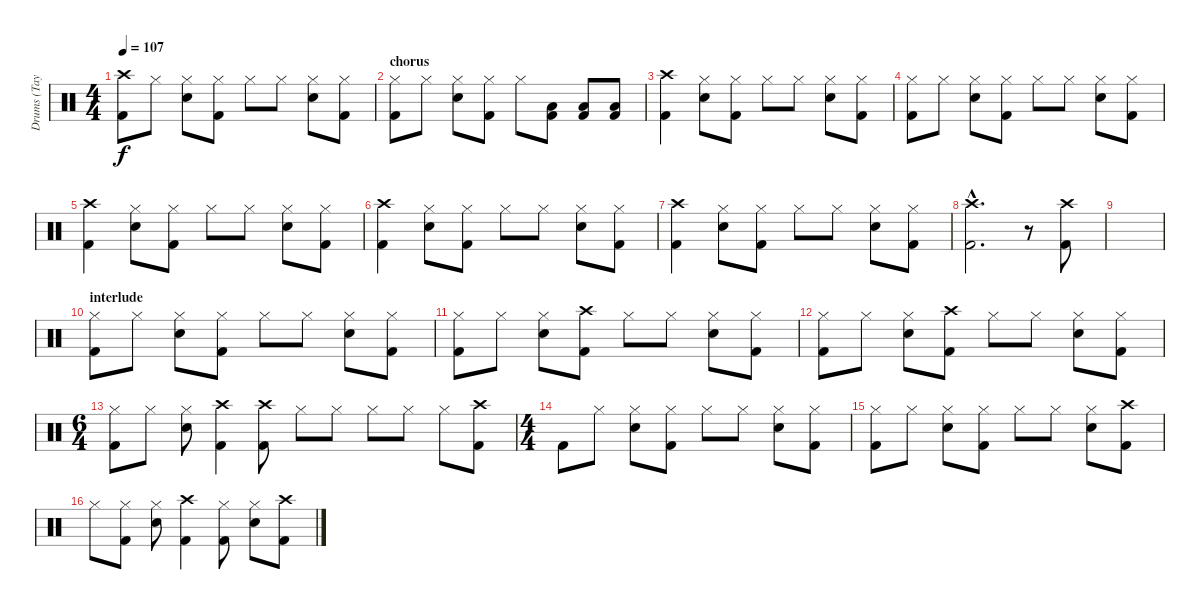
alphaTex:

\track ("Drums (Taylor)" "Drums (Tay") {instrument percussion}
\staff {score}
\articulation defaults
\ts (4 4)
\tempo 107
\clef neutral
\ks c
("Crash high (hit)" "Kick (hit) 2").8{dy f} "Hi-Hat (closed)".8 ("Hi-Hat (closed)" "Electric Snare (hit)").8 ("Hi-Hat (closed)" "Kick (hit) 2").8 "Hi-Hat (closed)".8 "Hi-Hat (closed)".8 ("Hi-Hat (closed)" "Electric Snare (hit)").8 ("Hi-Hat (closed)" "Kick (hit) 2").8 |
\section ("" "chorus")
("Hi-Hat (closed)" "Kick (hit) 2").8 "Hi-Hat (closed)".8 ("Hi-Hat (closed)" "Electric Snare (hit)").8 ("Hi-Hat (closed)" "Kick (hit) 2").8 "Hi-Hat (closed)".8 ("Low Tom (hit)" "Kick (hit) 2").8 ("Low Tom (hit)" "Kick (hit) 2").8 ("Low Tom (hit)" "Kick (hit) 2").8 |
("Crash high (hit)" "Kick (hit) 2").4 ("Hi-Hat (closed)" "Electric Snare (hit)").8 ("Hi-Hat (closed)" "Kick (hit) 2").8 "Hi-Hat (closed)".8 "Hi-Hat (closed)".8 ("Hi-Hat (closed)" "Electric Snare (hit)").8 ("Hi-Hat (closed)" "Kick (hit) 2").8 |
("Hi-Hat (closed)" "Kick (hit) 2").8 "Hi-Hat (closed)".8 ("Hi-Hat (closed)" "Electric Snare (hit)").8 ("Hi-Hat (closed)" "Kick (hit) 2").8 "Hi-Hat (closed)".8 "Hi-Hat (closed)".8 ("Hi-Hat (closed)" "Electric Snare (hit)").8 ("Hi-Hat (closed)" "Kick (hit) 2").8 |
("Crash high (hit)" "Kick (hit) 2").4 ("Hi-Hat (closed)" "Electric Snare (hit)").8 ("Hi-Hat (closed)" "Kick (hit) 2").8 "Hi-Hat (closed)".8 "Hi-Hat (closed)".8 ("Hi-Hat (closed)" "Electric Snare (hit)").8 ("Hi-Hat (closed)" "Kick (hit) 2").8 |
("Crash high (hit)" "Kick (hit) 2").4 ("Hi-Hat (closed)" "Electric Snare (hit)").8 ("Hi-Hat (closed)" "Kick (hit) 2").8 "Hi-Hat (closed)".8 "Hi-Hat (closed)".8 ("Hi-Hat (closed)" "Electric Snare (hit)").8 ("Hi-Hat (closed)" "Kick (hit) 2").8 |
("Crash high (hit)" "Kick (hit) 2").4 ("Hi-Hat (closed)" "Electric Snare (hit)").8 ("Hi-Hat (closed)" "Kick (hit) 2").8 "Hi-Hat (closed)".8 "Hi-Hat (closed)".8 ("Hi-Hat (closed)" "Electric Snare (hit)").8 ("Hi-Hat (closed)" "Kick (hit) 2").8 |
("Crash high (hit)"{hac} "Kick (hit) 2"{hac}).2{d} r.8 ("Crash high (hit)" "Kick (hit) 2").8 |
|
\section ("" "interlude")
("Hi-Hat (closed)" "Kick (hit) 2").8 "Hi-Hat (closed)".8 ("Hi-Hat (closed)" "Electric Snare (hit)").8 ("Hi-Hat (closed)" "Kick (hit) 2").8 "Hi-Hat (closed)".8 "Hi-Hat (closed)".8 ("Hi-Hat (closed)" "Electric Snare (hit)").8 ("Hi-Hat (closed)" "Kick (hit) 2").8 |
("Hi-Hat (closed)" "Kick (hit) 2").8 "Hi-Hat (closed)".8 ("Hi-Hat (closed)" "Electric Snare (hit)").8 ("Crash high (hit)" "Kick (hit) 2").8 "Hi-Hat (closed)".8 "Hi-Hat (closed)".8 ("Hi-Hat (closed)" "Electric Snare (hit)").8 ("Hi-Hat (closed)" "Kick (hit) 2").8 |
("Hi-Hat (closed)" "Kick (hit) 2").8 "Hi-Hat (closed)".8 ("Hi-Hat (closed)" "Electric Snare (hit)").8 ("Crash high (hit)" "Kick (hit) 2").8 "Hi-Hat (closed)".8 "Hi-Hat (closed)".8 ("Hi-Hat (closed)" "Electric Snare (hit)").8 ("Hi-Hat (closed)" "Kick (hit) 2").8 |
\ts (6 4)
("Hi-Hat (closed)" "Kick (hit) 2").8 "Hi-Hat (closed)".8 ("Hi-Hat (closed)" "Electric Snare (hit)").8 ("Crash high (hit)" "Kick (hit) 2").4 ("Crash high (hit)" "Kick (hit) 2").8 "Hi-Hat (closed)".8 "Hi-Hat (closed)".8 "Hi-Hat (closed)".8 "Hi-Hat (closed)".8 "Hi-Hat (closed)".8 ("Crash high (hit)" "Kick (hit) 2").8 |
\ts (4 4)
"Kick (hit) 2".8 "Hi-Hat (closed)".8 ("Hi-Hat (closed)" "Electric Snare (hit)").8 ("Hi-Hat (closed)" "Kick (hit) 2").8 "Hi-Hat (closed)".8 "Hi-Hat (closed)".8 ("Hi-Hat (closed)" "Electric Snare (hit)").8 ("Hi-Hat (closed)" "Kick (hit) 2").8 |
("Hi-Hat (closed)" "Kick (hit) 2").8 "Hi-Hat (closed)".8 ("Hi-Hat (closed)" "Electric Snare (hit)").8 ("Hi-Hat (closed)" "Kick (hit) 2").8 "Hi-Hat (closed)".8 "Hi-Hat (closed)".8 ("Hi-Hat (closed)" "Electric Snare (hit)").8 ("Crash high (hit)" "Kick (hit) 2").8 |
"Hi-Hat (closed)".8 ("Hi-Hat (closed)" "Kick (hit) 2").8 ("Hi-Hat (closed)" "Electric Snare (hit)").8 ("Crash high (hit)" "Kick (hit) 2").4 ("Hi-Hat (closed)" "Kick (hit) 2").8 ("Hi-Hat (closed)" "Electric Snare (hit)").8 ("Crash high (hit)" "Kick (hit) 2").8
